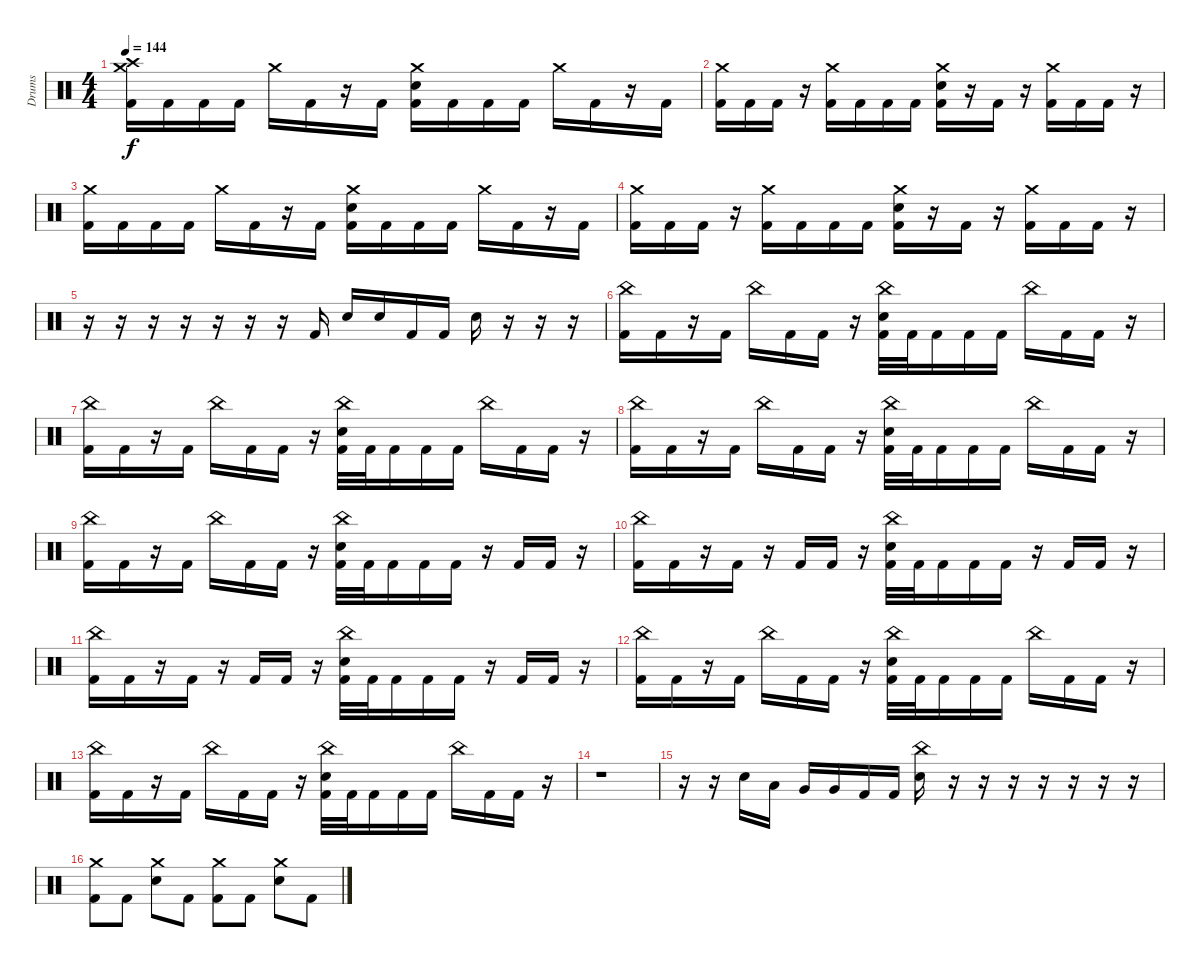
\track ("Drums" "Drums") {instrument percussion}
\staff {score}
\articulation defaults
\ts (4 4)
\tempo 144
\clef neutral
\ks c
("Crash medium (hit)" "Crash high (hit)" "Kick (hit) 2").16{dy f} "Kick (hit) 2".16 "Kick (hit) 2".16 "Kick (hit) 2".16 "Crash medium (hit)".16 "Kick (hit) 2".16 r.16 "Kick (hit) 2".16 ("Crash medium (hit)" "Electric Snare (hit)" "Kick (hit) 2").16 "Kick (hit) 2".16 "Kick (hit) 2".16 "Kick (hit) 2".16 "Crash medium (hit)".16 "Kick (hit) 2".16 r.16 "Kick (hit) 2".16 |
("Crash medium (hit)" "Kick (hit) 2").16 "Kick (hit) 2".16 "Kick (hit) 2".16 r.16 ("Crash medium (hit)" "Kick (hit) 2").16 "Kick (hit) 2".16 "Kick (hit) 2".16 "Kick (hit) 2".16 ("Crash medium (hit)" "Electric Snare (hit)" "Kick (hit) 2").16 r.16 "Kick (hit) 2".16 r.16 ("Crash medium (hit)" "Kick (hit) 2").16 "Kick (hit) 2".16 "Kick (hit) 2".16 r.16 |
("Crash medium (hit)" "Kick (hit) 2").16 "Kick (hit) 2".16 "Kick (hit) 2".16 "Kick (hit) 2".16 "Crash medium (hit)".16 "Kick (hit) 2".16 r.16 "Kick (hit) 2".16 ("Crash medium (hit)" "Electric Snare (hit)" "Kick (hit) 2").16 "Kick (hit) 2".16 "Kick (hit) 2".16 "Kick (hit) 2".16 "Crash medium (hit)".16 "Kick (hit) 2".16 r.16 "Kick (hit) 2".16 |
("Crash medium (hit)" "Kick (hit) 2").16 "Kick (hit) 2".16 "Kick (hit) 2".16 r.16 ("Crash medium (hit)" "Kick (hit) 2").16 "Kick (hit) 2".16 "Kick (hit) 2".16 "Kick (hit) 2".16 ("Crash medium (hit)" "Electric Snare (hit)" "Kick (hit) 2").16 r.16 "Kick (hit) 2".16 r.16 ("Crash medium (hit)" "Kick (hit) 2").16 "Kick (hit) 2".16 "Kick (hit) 2".16 r.16 |
r.16 r.16 r.16 r.16 r.16 r.16 r.16 "Kick (hit) 2".16 "Electric Snare (hit)".16 "Electric Snare (hit)".16 "Kick (hit) 2".16 "Kick (hit) 2".16 "Electric Snare (hit)".16 r.16 r.16 r.16 |
("China (hit)" "Kick (hit) 2").16 "Kick (hit) 2".16 r.16 "Kick (hit) 2".16 "China (hit)".16 "Kick (hit) 2".16 "Kick (hit) 2".16 r.16 ("China (hit)" "Electric Snare (hit)" "Kick (hit) 2").32 "Kick (hit) 2".32 "Kick (hit) 2".16 "Kick (hit) 2".16 "Kick (hit) 2".16 "China (hit)".16 "Kick (hit) 2".16 "Kick (hit) 2".16 r.16 |
("China (hit)" "Kick (hit) 2").16 "Kick (hit) 2".16 r.16 "Kick (hit) 2".16 "China (hit)".16 "Kick (hit) 2".16 "Kick (hit) 2".16 r.16 ("China (hit)" "Electric Snare (hit)" "Kick (hit) 2").32 "Kick (hit) 2".32 "Kick (hit) 2".16 "Kick (hit) 2".16 "Kick (hit) 2".16 "China (hit)".16 "Kick (hit) 2".16 "Kick (hit) 2".16 r.16 |
("China (hit)" "Kick (hit) 2").16 "Kick (hit) 2".16 r.16 "Kick (hit) 2".16 "China (hit)".16 "Kick (hit) 2".16 "Kick (hit) 2".16 r.16 ("China (hit)" "Electric Snare (hit)" "Kick (hit) 2").32 "Kick (hit) 2".32 "Kick (hit) 2".16 "Kick (hit) 2".16 "Kick (hit) 2".16 "China (hit)".16 "Kick (hit) 2".16 "Kick (hit) 2".16 r.16 |
("China (hit)" "Kick (hit) 2").16 "Kick (hit) 2".16 r.16 "Kick (hit) 2".16 "China (hit)".16 "Kick (hit) 2".16 "Kick (hit) 2".16 r.16 ("China (hit)" "Electric Snare (hit)" "Kick (hit) 2").32 "Kick (hit) 2".32 "Kick (hit) 2".16 "Kick (hit) 2".16 "Kick (hit) 2".16 r.16 "Kick (hit) 2".16 "Kick (hit) 2".16 r.16 |
("China (hit)" "Kick (hit) 2").16 "Kick (hit) 2".16 r.16 "Kick (hit) 2".16 r.16 "Kick (hit) 2".16 "Kick (hit) 2".16 r.16 ("China (hit)" "Electric Snare (hit)" "Kick (hit) 2").32 "Kick (hit) 2".32 "Kick (hit) 2".16 "Kick (hit) 2".16 "Kick (hit) 2".16 r.16 "Kick (hit) 2".16 "Kick (hit) 2".16 r.16 |
("China (hit)" "Kick (hit) 2").16 "Kick (hit) 2".16 r.16 "Kick (hit) 2".16 r.16 "Kick (hit) 2".16 "Kick (hit) 2".16 r.16 ("China (hit)" "Electric Snare (hit)" "Kick (hit) 2").32 "Kick (hit) 2".32 "Kick (hit) 2".16 "Kick (hit) 2".16 "Kick (hit) 2".16 r.16 "Kick (hit) 2".16 "Kick (hit) 2".16 r.16 |
("China (hit)" "Kick (hit) 2").16 "Kick (hit) 2".16 r.16 "Kick (hit) 2".16 "China (hit)".16 "Kick (hit) 2".16 "Kick (hit) 2".16 r.16 ("China (hit)" "Electric Snare (hit)" "Kick (hit) 2").32 "Kick (hit) 2".32 "Kick (hit) 2".16 "Kick (hit) 2".16 "Kick (hit) 2".16 "China (hit)".16 "Kick (hit) 2".16 "Kick (hit) 2".16 r.16 |
("China (hit)" "Kick (hit) 2").16 "Kick (hit) 2".16 r.16 "Kick (hit) 2".16 "China (hit)".16 "Kick (hit) 2".16 "Kick (hit) 2".16 r.16 ("China (hit)" "Electric Snare (hit)" "Kick (hit) 2").32 "Kick (hit) 2".32 "Kick (hit) 2".16 "Kick (hit) 2".16 "Kick (hit) 2".16 "China (hit)".16 "Kick (hit) 2".16 "Kick (hit) 2".16 r.16 |
r.1 |
r.16 r.16 "Electric Snare (hit)".16 "Low Tom (hit)".16 "Very Low Tom (hit)".16 "Very Low Tom (hit)".16 "Kick (hit) 2".16 "Kick (hit) 2".16 ("China (hit)" "Electric Snare (hit)").16 r.16 r.16 r.16 r.16 r.16 r.16 r.16 |
("Crash medium (hit)" "Kick (hit) 2").8 "Kick (hit) 2".8 ("Crash medium (hit)" "Electric Snare (hit)").8 "Kick (hit) 2".8 ("Crash medium (hit)" "Kick (hit) 2").8 "Kick (hit) 2".8 ("Crash medium (hit)" "Electric Snare (hit)").8 "Kick (hit) 2".8
